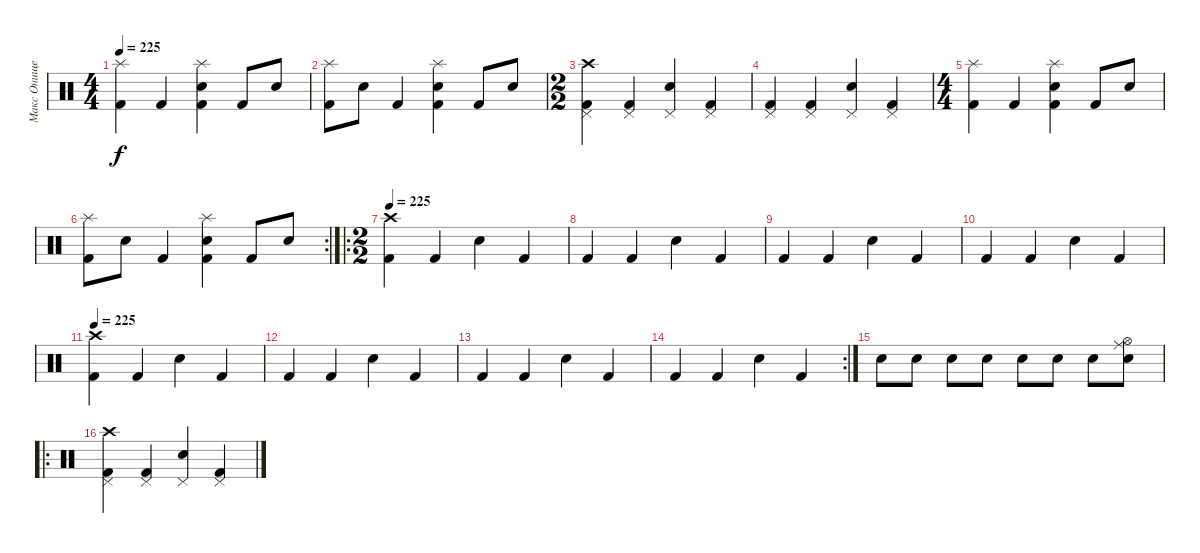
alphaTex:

\track ("Макс Онищенко" "Макс Онище") {instrument percussion}
\staff {score}
\articulation defaults
\ts (4 4)
\tempo 225
\clef neutral
\ks c
("Splash (hit)" "Kick (hit) 2").4{dy f} "Kick (hit) 2".4 ("Splash (hit)" "Kick (hit) 2" "Electric Snare (hit)").4 "Kick (hit) 2".8 "Electric Snare (hit)".8 |
("Splash (hit)" "Kick (hit) 2").8 "Electric Snare (hit)".8 "Kick (hit) 2".4 ("Splash (hit)" "Kick (hit) 2" "Electric Snare (hit)").4 "Kick (hit) 2".8 "Electric Snare (hit)".8 |
\ts (2 2)
("Pedal Hi-Hat (hit)" "Kick (hit) 2" "Crash high (hit)").4 ("Pedal Hi-Hat (hit)" "Kick (hit) 2").4 ("Pedal Hi-Hat (hit)" "Snare (hit) 2").4 ("Pedal Hi-Hat (hit)" "Kick (hit) 2").4 |
("Pedal Hi-Hat (hit)" "Kick (hit) 2").4 ("Pedal Hi-Hat (hit)" "Kick (hit) 2").4 ("Pedal Hi-Hat (hit)" "Snare (hit) 2").4 ("Pedal Hi-Hat (hit)" "Kick (hit) 2").4 |
\ts (4 4)
("Splash (hit)" "Kick (hit) 2").4 "Kick (hit) 2".4 ("Splash (hit)" "Kick (hit) 2" "Electric Snare (hit)").4 "Kick (hit) 2".8 "Electric Snare (hit)".8 |
\rc 2
("Splash (hit)" "Kick (hit) 2").8 "Electric Snare (hit)".8 "Kick (hit) 2".4 ("Splash (hit)" "Kick (hit) 2" "Electric Snare (hit)").4 "Kick (hit) 2".8 "Electric Snare (hit)".8 |
\ro
\ts (2 2)
\tempo 225
("Kick (hit) 2" "Crash high (hit)").4 "Kick (hit) 2".4 "Snare (hit) 2".4 "Kick (hit) 2".4 |
"Kick (hit) 2".4 "Kick (hit) 2".4 "Snare (hit) 2".4 "Kick (hit) 2".4 |
"Kick (hit) 2".4 "Kick (hit) 2".4 "Snare (hit) 2".4 "Kick (hit) 2".4 |
"Kick (hit) 2".4 "Kick (hit) 2".4 "Snare (hit) 2".4 "Kick (hit) 2".4 |
\tempo 225
("Kick (hit) 2" "Crash high (hit)").4 "Kick (hit) 2".4 "Snare (hit) 2".4 "Kick (hit) 2".4 |
"Kick (hit) 2".4 "Kick (hit) 2".4 "Snare (hit) 2".4 "Kick (hit) 2".4 |
"Kick (hit) 2".4 "Kick (hit) 2".4 "Snare (hit) 2".4 "Kick (hit) 2".4 |
\rc 2 "Kick (hit) 2".4 "Kick (hit) 2".4 "Snare (hit) 2".4 "Kick (hit) 2".4
|
"Snare (hit) 2".8 "Snare (hit) 2".8 "Snare (hit) 2".8 "Snare (hit) 2".8 "Snare (hit) 2".8 "Snare (hit) 2".8 "Snare (hit) 2".8 ("Snare (hit) 2" "Ride (middle)" "Hi-Hat (open)").8 |
\ro
("Pedal Hi-Hat (hit)" "Kick (hit) 2" "Crash high (hit)").4 ("Pedal Hi-Hat (hit)" "Kick (hit) 2").4 ("Pedal Hi-Hat (hit)" "Snare (hit) 2").4 ("Pedal Hi-Hat (hit)" "Kick (hit) 2").4
